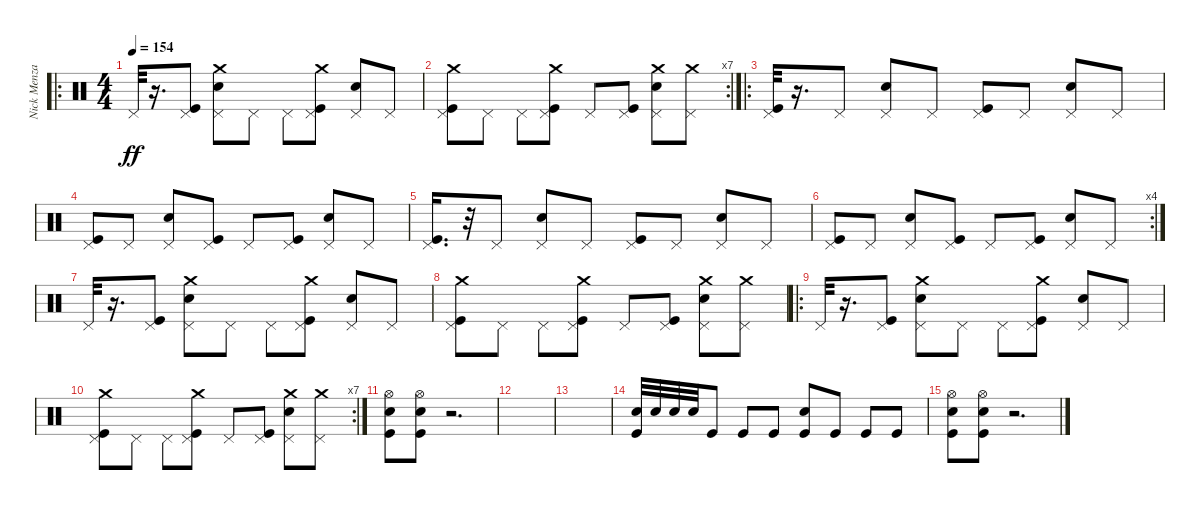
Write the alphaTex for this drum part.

\track ("Nick Menza" "Nick Menza") {instrument percussion}
\staff {score}
\articulation defaults
\ro
\ts (4 4)
\tempo 154
\clef neutral
\ks c "Pedal Hi-Hat (hit)".32{dy ff}
r.16{d} ("Pedal Hi-Hat (hit)" "Kick (hit)").8 ("Electric Snare (hit)" "Pedal Hi-Hat (hit)" "Crash medium (hit)").8 "Pedal Hi-Hat (hit)".8 "Pedal Hi-Hat (hit)".8 ("Kick (hit)" "Pedal Hi-Hat (hit)" "Crash medium (hit)").8 ("Electric Snare (hit)" "Pedal Hi-Hat (hit)").8 "Pedal Hi-Hat (hit)".8 |
\rc 7
("Crash medium (hit)" "Kick (hit)" "Pedal Hi-Hat (hit)").8 "Pedal Hi-Hat (hit)".8 "Pedal Hi-Hat (hit)".8 ("Crash medium (hit)" "Pedal Hi-Hat (hit)" "Kick (hit)").8 "Pedal Hi-Hat (hit)".8 ("Kick (hit)" "Pedal Hi-Hat (hit)").8 ("Crash medium (hit)" "Electric Snare (hit)" "Pedal Hi-Hat (hit)").8 ("Crash medium (hit)" "Pedal Hi-Hat (hit)").8 |
\ro
("Pedal Hi-Hat (hit)" "Kick (hit)").32 r.16{d} "Pedal Hi-Hat (hit)".8 ("Pedal Hi-Hat (hit)" "Electric Snare (hit)").8 "Pedal Hi-Hat (hit)".8 ("Kick (hit)" "Pedal Hi-Hat (hit)").8 "Pedal Hi-Hat (hit)".8 ("Electric Snare (hit)" "Pedal Hi-Hat (hit)").8 "Pedal Hi-Hat (hit)".8 |
("Kick (hit)" "Pedal Hi-Hat (hit)").8 "Pedal Hi-Hat (hit)".8 ("Pedal Hi-Hat (hit)" "Electric Snare (hit)").8 ("Pedal Hi-Hat (hit)" "Kick (hit)").8 "Pedal Hi-Hat (hit)".8 ("Kick (hit)" "Pedal Hi-Hat (hit)").8 ("Electric Snare (hit)" "Pedal Hi-Hat (hit)").8 "Pedal Hi-Hat (hit)".8 |
("Pedal Hi-Hat (hit)" "Kick (hit)").16{d} r.32 "Pedal Hi-Hat (hit)".8 ("Electric Snare (hit)" "Pedal Hi-Hat (hit)").8 "Pedal Hi-Hat (hit)".8 ("Kick (hit)" "Pedal Hi-Hat (hit)").8 "Pedal Hi-Hat (hit)".8 ("Electric Snare (hit)" "Pedal Hi-Hat (hit)").8 "Pedal Hi-Hat (hit)".8 |
\rc 4
("Kick (hit)" "Pedal Hi-Hat (hit)").8 "Pedal Hi-Hat (hit)".8 ("Electric Snare (hit)" "Pedal Hi-Hat (hit)").8 ("Pedal Hi-Hat (hit)" "Kick (hit)").8 "Pedal Hi-Hat (hit)".8 ("Kick (hit)" "Pedal Hi-Hat (hit)").8 ("Electric Snare (hit)" "Pedal Hi-Hat (hit)").8 "Pedal Hi-Hat (hit)".8 |
"Pedal Hi-Hat (hit)".32 r.16{d} ("Pedal Hi-Hat (hit)" "Kick (hit)").8 ("Electric Snare (hit)" "Pedal Hi-Hat (hit)" "Crash medium (hit)").8 "Pedal Hi-Hat (hit)".8 "Pedal Hi-Hat (hit)".8 ("Kick (hit)" "Pedal Hi-Hat (hit)" "Crash medium (hit)").8 ("Electric Snare (hit)" "Pedal Hi-Hat (hit)").8 "Pedal Hi-Hat (hit)".8 |
("Crash medium (hit)" "Kick (hit)" "Pedal Hi-Hat (hit)").8 "Pedal Hi-Hat (hit)".8 "Pedal Hi-Hat (hit)".8 ("Crash medium (hit)" "Pedal Hi-Hat (hit)" "Kick (hit)").8 "Pedal Hi-Hat (hit)".8 ("Kick (hit)" "Pedal Hi-Hat (hit)").8 ("Crash medium (hit)" "Electric Snare (hit)" "Pedal Hi-Hat (hit)").8 ("Crash medium (hit)" "Pedal Hi-Hat (hit)").8 |
\ro "Pedal Hi-Hat (hit)".32
r.16{d} ("Pedal Hi-Hat (hit)" "Kick (hit)").8 ("Electric Snare (hit)" "Pedal Hi-Hat (hit)" "Crash medium (hit)").8 "Pedal Hi-Hat (hit)".8 "Pedal Hi-Hat (hit)".8 ("Kick (hit)" "Pedal Hi-Hat (hit)" "Crash medium (hit)").8 ("Electric Snare (hit)" "Pedal Hi-Hat (hit)").8 "Pedal Hi-Hat (hit)".8 |
\rc 7
("Crash medium (hit)" "Kick (hit)" "Pedal Hi-Hat (hit)").8 "Pedal Hi-Hat (hit)".8 "Pedal Hi-Hat (hit)".8 ("Crash medium (hit)" "Pedal Hi-Hat (hit)" "Kick (hit)").8 "Pedal Hi-Hat (hit)".8 ("Kick (hit)" "Pedal Hi-Hat (hit)").8 ("Crash medium (hit)" "Electric Snare (hit)" "Pedal Hi-Hat (hit)").8 ("Crash medium (hit)" "Pedal Hi-Hat (hit)").8 |
("Kick (hit)" "Electric Snare (hit)" "Hi-Hat (open)").8 ("Kick (hit)" "Electric Snare (hit)" "Hi-Hat (open)").8 r.2{d} |
|
|
("Kick (hit)" "Electric Snare (hit)").32 "Electric Snare (hit)".32 "Electric Snare (hit)".32 "Electric Snare (hit)".32 "Kick (hit)".8 "Kick (hit)".8 "Kick (hit)".8 ("Kick (hit)" "Electric Snare (hit)").8 "Kick (hit)".8 "Kick (hit)".8 "Kick (hit)".8 |
("Kick (hit)" "Electric Snare (hit)" "Hi-Hat (open)").8 ("Kick (hit)" "Electric Snare (hit)" "Hi-Hat (open)").8 r.2{d}
